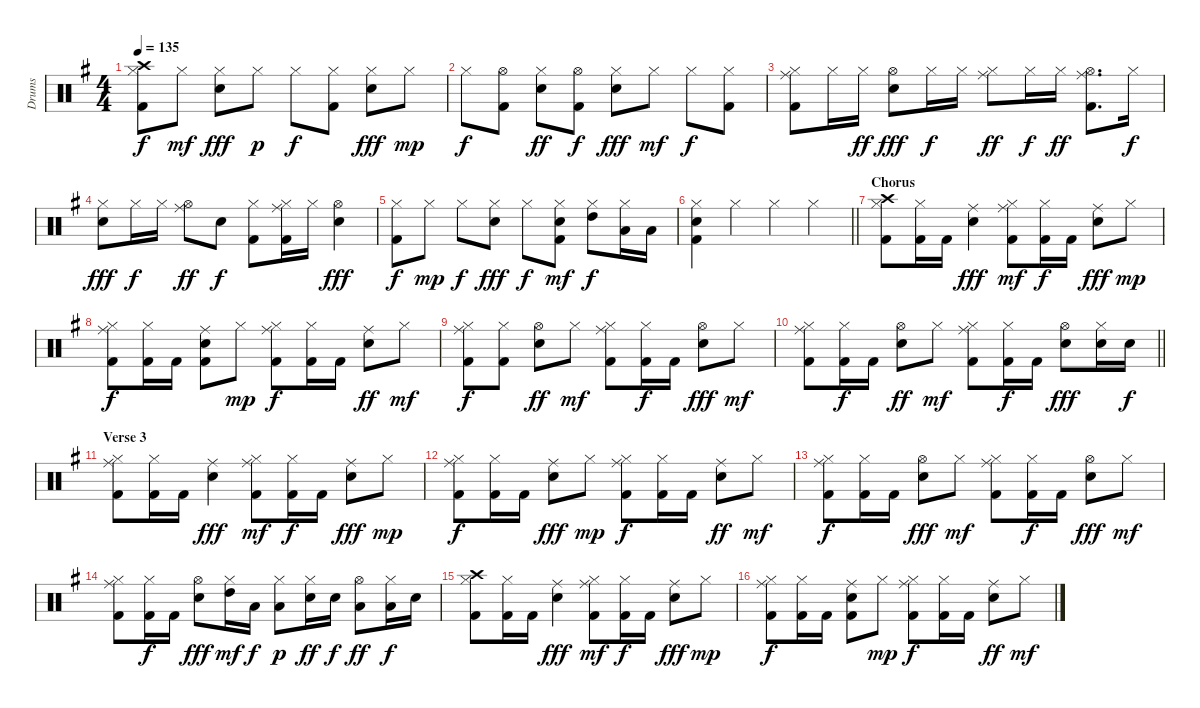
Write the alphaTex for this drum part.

\track ("Drums" "Drums") {instrument percussion}
\staff {score}
\articulation defaults
\ts (4 4)
\tempo 135
\clef neutral
\ks g
("Hi-Hat (closed)" "Crash high (hit)" "Kick (hit) 2").8{dy f} "Hi-Hat (closed)".8{dy mf} ("Hi-Hat (closed)" "Electric Snare (hit)").8{dy fff} "Hi-Hat (closed)".8{dy p} "Hi-Hat (closed)".8{dy f} ("Hi-Hat (closed)" "Kick (hit) 2").8 ("Hi-Hat (closed)" "Electric Snare (hit)").8{dy fff} "Hi-Hat (closed)".8{dy mp} |
"Hi-Hat (closed)".8{dy f} ("Hi-Hat (open)" "Kick (hit) 2").8 ("Hi-Hat (closed)" "Electric Snare (hit)").8{dy ff} ("Hi-Hat (open)" "Kick (hit) 2").8{dy f} ("Hi-Hat (closed)" "Snare (hit) 2").8{dy fff} "Hi-Hat (closed)".8{dy mf} "Hi-Hat (closed)".8{dy f} ("Hi-Hat (closed)" "Kick (hit) 2").8 |
("Hi-Hat (closed)" "Ride (middle)" "Kick (hit) 2").8 "Hi-Hat (closed)".16 "Hi-Hat (closed)".16{dy ff} ("Hi-Hat (open)" "Electric Snare (hit)").8{dy fff} "Hi-Hat (closed)".16{dy f} "Hi-Hat (closed)".16 ("Hi-Hat (closed)" "Ride (middle)").8{dy ff} "Hi-Hat (closed)".16{dy f} "Hi-Hat (closed)".16{dy ff} ("Hi-Hat (open)" "Ride (middle)" "Kick (hit) 2").8{d} "Hi-Hat (closed)".16{dy f} |
("Hi-Hat (closed)" "Electric Snare (hit)").8{dy fff} "Hi-Hat (closed)".16{dy f} "Hi-Hat (closed)".16 ("Hi-Hat (open)" "Ride (middle)").8{dy ff} "Electric Snare (hit)".8{dy f} ("Hi-Hat (closed)" "Kick (hit) 2").8 ("Hi-Hat (closed)" "Ride (middle)" "Kick (hit) 2").16 "Hi-Hat (closed)".16 ("Hi-Hat (open)" "Electric Snare (hit)").4{dy fff} |
("Hi-Hat (closed)" "Kick (hit) 2").8{dy f} "Hi-Hat (closed)".8{dy mp} "Hi-Hat (closed)".8{dy f} ("Hi-Hat (closed)" "Electric Snare (hit)").8{dy fff} "Hi-Hat (closed)".8{dy f} ("Hi-Hat (closed)" "Electric Snare (hit)" "Kick (hit) 2").8{dy mf} ("Hi-Hat (closed)" "High Tom (hit)").8{dy f} ("Hi-Hat (closed)" "Low Tom (hit)").16 "Low Floor Tom (hit)".16 |
\barLineRight lightlight
("Hi-Hat (closed)" "Electric Snare (hit)" "Kick (hit) 2").4 "Hi-Hat (closed)".4 "Hi-Hat (closed)".4 "Hi-Hat (closed)".4 |
\section ("" "Chorus")
("Hi-Hat (closed)" "Crash high (hit)" "Kick (hit) 2").8 ("Hi-Hat (closed)" "Kick (hit) 2").16 "Kick (hit) 2".16 ("Ride (middle)" "Electric Snare (hit)").4{dy fff} ("Hi-Hat (closed)" "Ride (middle)" "Kick (hit) 2").8{dy mf} ("Hi-Hat (closed)" "Kick (hit) 2").16{dy f} "Kick (hit) 2".16 ("Ride (middle)" "Electric Snare (hit)").8{dy fff} "Hi-Hat (closed)".8{dy mp} |
("Hi-Hat (closed)" "Ride (middle)" "Kick (hit) 2").8{dy f} ("Hi-Hat (closed)" "Kick (hit) 2").16 "Kick (hit) 2".16 ("Ride (middle)" "Electric Snare (hit)" "Kick (hit) 2").8 "Hi-Hat (closed)".8{dy mp} ("Hi-Hat (closed)" "Ride (middle)" "Kick (hit) 2").8{dy f} ("Hi-Hat (closed)" "Kick (hit) 2").16 "Kick (hit) 2".16 ("Ride (middle)" "Electric Snare (hit)").8{dy ff} "Hi-Hat (closed)".8{dy mf} |
("Hi-Hat (closed)" "Ride (middle)" "Kick (hit) 2").8{dy f} ("Hi-Hat (closed)" "Kick (hit) 2").8 ("Hi-Hat (open)" "Electric Snare (hit)").8{dy ff} "Hi-Hat (closed)".8{dy mf} ("Hi-Hat (closed)" "Ride (middle)" "Kick (hit) 2").8 ("Hi-Hat (closed)" "Kick (hit) 2").16{dy f} "Kick (hit) 2".16 ("Hi-Hat (open)" "Electric Snare (hit)").8{dy fff} "Hi-Hat (closed)".8{dy mf} |
\barLineRight lightlight
("Hi-Hat (closed)" "Ride (middle)" "Kick (hit) 2").8 ("Hi-Hat (closed)" "Kick (hit) 2").16{dy f} "Kick (hit) 2".16 ("Hi-Hat (open)" "Electric Snare (hit)").8{dy ff} "Hi-Hat (closed)".8{dy mf} ("Hi-Hat (closed)" "Ride (middle)" "Kick (hit) 2").8 ("Hi-Hat (closed)" "Kick (hit) 2").16{dy f} "Kick (hit) 2".16 ("Hi-Hat (open)" "Electric Snare (hit)").8{dy fff} ("Hi-Hat (closed)" "Electric Snare (hit)").16 "Electric Snare (hit)".16{dy f} |
\section ("" "Verse 3")
("Hi-Hat (closed)" "Ride (middle)" "Kick (hit) 2").8 ("Hi-Hat (closed)" "Kick (hit) 2").16 "Kick (hit) 2".16 ("Ride (middle)" "Electric Snare (hit)").4{dy fff} ("Hi-Hat (closed)" "Ride (middle)" "Kick (hit) 2").8{dy mf} ("Hi-Hat (closed)" "Kick (hit) 2").16{dy f} "Kick (hit) 2".16 ("Ride (middle)" "Electric Snare (hit)").8{dy fff} "Hi-Hat (closed)".8{dy mp} |
("Hi-Hat (closed)" "Ride (middle)" "Kick (hit) 2").8{dy f} ("Hi-Hat (closed)" "Kick (hit) 2").16 "Kick (hit) 2".16 ("Ride (middle)" "Electric Snare (hit)").8{dy fff} "Hi-Hat (closed)".8{dy mp} ("Hi-Hat (closed)" "Ride (middle)" "Kick (hit) 2").8{dy f} ("Hi-Hat (closed)" "Kick (hit) 2").16 "Kick (hit) 2".16 ("Ride (middle)" "Electric Snare (hit)").8{dy ff} "Hi-Hat (closed)".8{dy mf} |
("Hi-Hat (closed)" "Ride (middle)" "Kick (hit) 2").8{dy f} ("Hi-Hat (closed)" "Kick (hit) 2").16 "Kick (hit) 2".16 ("Hi-Hat (open)" "Electric Snare (hit)").8{dy fff} "Hi-Hat (closed)".8{dy mf} ("Hi-Hat (closed)" "Ride (middle)" "Kick (hit) 2").8 ("Hi-Hat (closed)" "Kick (hit) 2").16{dy f} "Kick (hit) 2".16 ("Hi-Hat (open)" "Electric Snare (hit)").8{dy fff} "Hi-Hat (closed)".8{dy mf} |
("Hi-Hat (closed)" "Ride (middle)" "Kick (hit) 2").8 ("Hi-Hat (closed)" "Kick (hit) 2").16{dy f} "Kick (hit) 2".16 ("Hi-Hat (open)" "Electric Snare (hit)").8{dy fff} ("Hi-Hat (closed)" "High Tom (hit)").16{dy mf} "Low Tom (hit)".16{dy f} ("Hi-Hat (closed)" "Low Floor Tom (hit)").8{dy p} ("Hi-Hat (closed)" "Electric Snare (hit)").16{dy ff} "Electric Snare (hit)".16{dy f} ("Hi-Hat (open)" "Low Tom (hit)").8{dy ff} ("Hi-Hat (closed)" "Low Tom (hit)").16{dy f} "Electric Snare (hit)".16 |
("Hi-Hat (closed)" "Crash high (hit)" "Kick (hit) 2").8 ("Hi-Hat (closed)" "Kick (hit) 2").16 "Kick (hit) 2".16 ("Ride (middle)" "Electric Snare (hit)").4{dy fff} ("Hi-Hat (closed)" "Ride (middle)" "Kick (hit) 2").8{dy mf} ("Hi-Hat (closed)" "Kick (hit) 2").16{dy f} "Kick (hit) 2".16 ("Ride (middle)" "Electric Snare (hit)").8{dy fff} "Hi-Hat (closed)".8{dy mp} |
("Hi-Hat (closed)" "Ride (middle)" "Kick (hit) 2").8{dy f} ("Hi-Hat (closed)" "Kick (hit) 2").16 "Kick (hit) 2".16 ("Ride (middle)" "Electric Snare (hit)" "Kick (hit) 2").8 "Hi-Hat (closed)".8{dy mp} ("Hi-Hat (closed)" "Ride (middle)" "Kick (hit) 2").8{dy f} ("Hi-Hat (closed)" "Kick (hit) 2").16 "Kick (hit) 2".16 ("Ride (middle)" "Electric Snare (hit)").8{dy ff} "Hi-Hat (closed)".8{dy mf}
